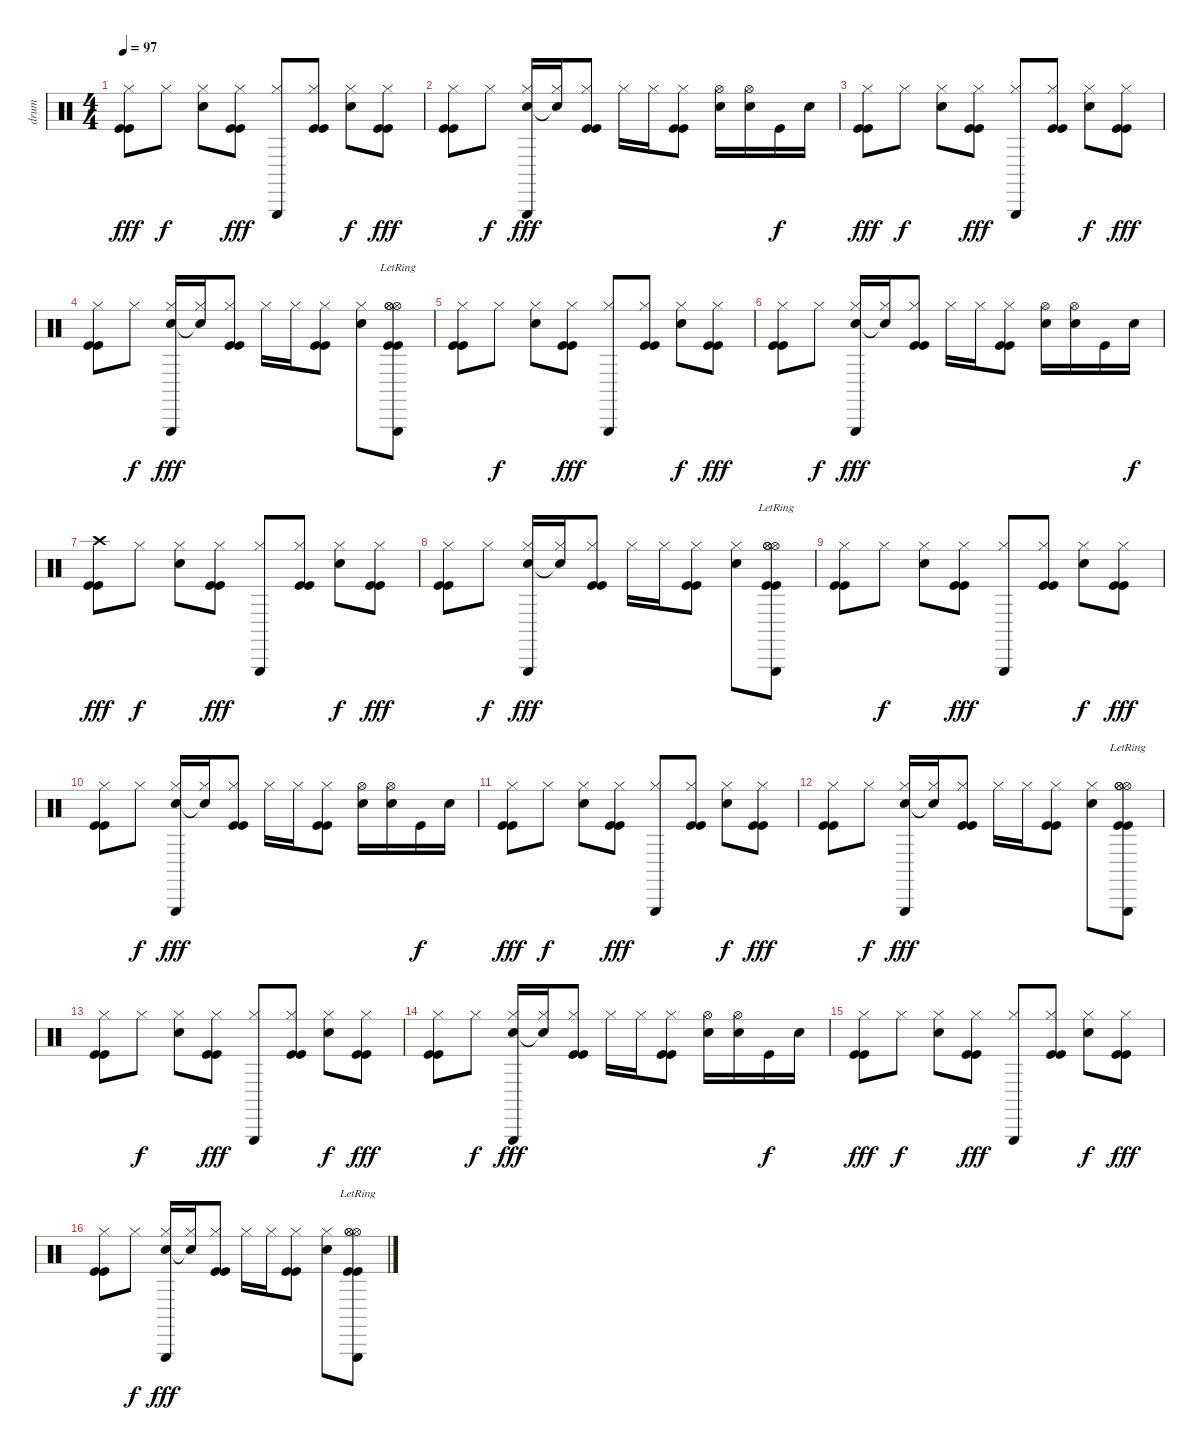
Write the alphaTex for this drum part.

\track ("drum" "drum") {instrument percussion}
\staff {score}
\articulation defaults
\ts (4 4)
\tempo 97
\clef neutral
\ks c
("Hi-Hat (closed)" "Kick (hit)" "Kick (hit)").8{dy fff} "Hi-Hat (closed)".8{dy f} ("Hi-Hat (closed)" "Electric Snare (hit)").8 ("Hi-Hat (closed)" "Kick (hit)" "Kick (hit)").8{dy fff} ("Hi-Hat (closed)" "Triangle (hit)").8 ("Hi-Hat (closed)" "Kick (hit)" "Kick (hit)").8 ("Hi-Hat (closed)" "Electric Snare (hit)").8{dy f} ("Hi-Hat (closed)" "Kick (hit)" "Kick (hit)").8{dy fff} |
("Hi-Hat (closed)" "Kick (hit)" "Kick (hit)").8 "Hi-Hat (closed)".8{dy f} ("Hi-Hat (closed)" "Electric Snare (hit)" "Triangle (hit)").16{dy fff} ("Hi-Hat (closed)" "Snare (hit)"{t}).16 ("Hi-Hat (closed)" "Kick (hit)" "Kick (hit)").8 "Hi-Hat (closed)".16 "Hi-Hat (closed)".16 ("Hi-Hat (closed)" "Kick (hit)" "Kick (hit)").8 ("Hi-Hat (open)" "Electric Snare (hit)").16 ("Hi-Hat (open)" "Electric Snare (hit)").16 "Kick (hit)".16{dy f} "Electric Snare (hit)".16 |
("Hi-Hat (closed)" "Kick (hit)" "Kick (hit)").8{dy fff} "Hi-Hat (closed)".8{dy f} ("Hi-Hat (closed)" "Electric Snare (hit)").8 ("Hi-Hat (closed)" "Kick (hit)" "Kick (hit)").8{dy fff} ("Hi-Hat (closed)" "Triangle (hit)").8 ("Hi-Hat (closed)" "Kick (hit)" "Kick (hit)").8 ("Hi-Hat (closed)" "Electric Snare (hit)").8{dy f} ("Hi-Hat (closed)" "Kick (hit)" "Kick (hit)").8{dy fff} |
("Hi-Hat (closed)" "Kick (hit)" "Kick (hit)").8 "Hi-Hat (closed)".8{dy f} ("Hi-Hat (closed)" "Electric Snare (hit)" "Triangle (hit)").16{dy fff} ("Hi-Hat (closed)" "Snare (hit)"{t}).16 ("Hi-Hat (closed)" "Kick (hit)" "Kick (hit)").8 "Hi-Hat (closed)".16 "Hi-Hat (closed)".16 ("Hi-Hat (closed)" "Kick (hit)" "Kick (hit)").8 ("Hi-Hat (closed)" "Electric Snare (hit)").8 ("Hi-Hat (open)" "Hi-Hat (open)" "Hi-Hat (open)" "Triangle (hit)"{lr} "Kick (hit)" "Kick (hit)").8 |
("Hi-Hat (closed)" "Kick (hit)" "Kick (hit)").8 "Hi-Hat (closed)".8{dy f} ("Hi-Hat (closed)" "Electric Snare (hit)").8 ("Hi-Hat (closed)" "Kick (hit)" "Kick (hit)").8{dy fff} ("Hi-Hat (closed)" "Triangle (hit)").8 ("Hi-Hat (closed)" "Kick (hit)" "Kick (hit)").8 ("Hi-Hat (closed)" "Electric Snare (hit)").8{dy f} ("Hi-Hat (closed)" "Kick (hit)" "Kick (hit)").8{dy fff} |
("Hi-Hat (closed)" "Kick (hit)" "Kick (hit)").8 "Hi-Hat (closed)".8{dy f} ("Hi-Hat (closed)" "Electric Snare (hit)" "Triangle (hit)").16{dy fff} ("Hi-Hat (closed)" "Snare (hit)"{t}).16 ("Hi-Hat (closed)" "Kick (hit)" "Kick (hit)").8 "Hi-Hat (closed)".16 "Hi-Hat (closed)".16 ("Hi-Hat (closed)" "Kick (hit)" "Kick (hit)").8 ("Hi-Hat (open)" "Electric Snare (hit)").16 ("Hi-Hat (open)" "Electric Snare (hit)").16 "Kick (hit)".16 "Electric Snare (hit)".16{dy f} |
("Crash high (hit)" "Kick (hit)" "Kick (hit)").8{dy fff} "Hi-Hat (closed)".8{dy f} ("Hi-Hat (closed)" "Electric Snare (hit)").8 ("Hi-Hat (closed)" "Kick (hit)" "Kick (hit)").8{dy fff} ("Hi-Hat (closed)" "Triangle (hit)").8 ("Hi-Hat (closed)" "Kick (hit)" "Kick (hit)").8 ("Hi-Hat (closed)" "Electric Snare (hit)").8{dy f} ("Hi-Hat (closed)" "Kick (hit)" "Kick (hit)").8{dy fff} |
("Hi-Hat (closed)" "Kick (hit)" "Kick (hit)").8 "Hi-Hat (closed)".8{dy f} ("Hi-Hat (closed)" "Electric Snare (hit)" "Triangle (hit)").16{dy fff} ("Hi-Hat (closed)" "Snare (hit)"{t}).16 ("Hi-Hat (closed)" "Kick (hit)" "Kick (hit)").8 "Hi-Hat (closed)".16 "Hi-Hat (closed)".16 ("Hi-Hat (closed)" "Kick (hit)" "Kick (hit)").8 ("Hi-Hat (closed)" "Electric Snare (hit)").8 ("Hi-Hat (open)" "Hi-Hat (open)" "Hi-Hat (open)" "Triangle (hit)"{lr} "Kick (hit)" "Kick (hit)").8 |
("Hi-Hat (closed)" "Kick (hit)" "Kick (hit)").8 "Hi-Hat (closed)".8{dy f} ("Hi-Hat (closed)" "Electric Snare (hit)").8 ("Hi-Hat (closed)" "Kick (hit)" "Kick (hit)").8{dy fff} ("Hi-Hat (closed)" "Triangle (hit)").8 ("Hi-Hat (closed)" "Kick (hit)" "Kick (hit)").8 ("Hi-Hat (closed)" "Electric Snare (hit)").8{dy f} ("Hi-Hat (closed)" "Kick (hit)" "Kick (hit)").8{dy fff} |
("Hi-Hat (closed)" "Kick (hit)" "Kick (hit)").8 "Hi-Hat (closed)".8{dy f} ("Hi-Hat (closed)" "Electric Snare (hit)" "Triangle (hit)").16{dy fff} ("Hi-Hat (closed)" "Snare (hit)"{t}).16 ("Hi-Hat (closed)" "Kick (hit)" "Kick (hit)").8 "Hi-Hat (closed)".16 "Hi-Hat (closed)".16 ("Hi-Hat (closed)" "Kick (hit)" "Kick (hit)").8 ("Hi-Hat (open)" "Electric Snare (hit)").16 ("Hi-Hat (open)" "Electric Snare (hit)").16 "Kick (hit)".16{dy f} "Electric Snare (hit)".16 |
("Hi-Hat (closed)" "Kick (hit)" "Kick (hit)").8{dy fff} "Hi-Hat (closed)".8{dy f} ("Hi-Hat (closed)" "Electric Snare (hit)").8 ("Hi-Hat (closed)" "Kick (hit)" "Kick (hit)").8{dy fff} ("Hi-Hat (closed)" "Triangle (hit)").8 ("Hi-Hat (closed)" "Kick (hit)" "Kick (hit)").8 ("Hi-Hat (closed)" "Electric Snare (hit)").8{dy f} ("Hi-Hat (closed)" "Kick (hit)" "Kick (hit)").8{dy fff} |
("Hi-Hat (closed)" "Kick (hit)" "Kick (hit)").8 "Hi-Hat (closed)".8{dy f} ("Hi-Hat (closed)" "Electric Snare (hit)" "Triangle (hit)").16{dy fff} ("Hi-Hat (closed)" "Snare (hit)"{t}).16 ("Hi-Hat (closed)" "Kick (hit)" "Kick (hit)").8 "Hi-Hat (closed)".16 "Hi-Hat (closed)".16 ("Hi-Hat (closed)" "Kick (hit)" "Kick (hit)").8 ("Hi-Hat (closed)" "Electric Snare (hit)").8 ("Hi-Hat (open)" "Hi-Hat (open)" "Hi-Hat (open)" "Triangle (hit)"{lr} "Kick (hit)" "Kick (hit)").8 |
("Hi-Hat (closed)" "Kick (hit)" "Kick (hit)").8 "Hi-Hat (closed)".8{dy f} ("Hi-Hat (closed)" "Electric Snare (hit)").8 ("Hi-Hat (closed)" "Kick (hit)" "Kick (hit)").8{dy fff} ("Hi-Hat (closed)" "Triangle (hit)").8 ("Hi-Hat (closed)" "Kick (hit)" "Kick (hit)").8 ("Hi-Hat (closed)" "Electric Snare (hit)").8{dy f} ("Hi-Hat (closed)" "Kick (hit)" "Kick (hit)").8{dy fff} |
("Hi-Hat (closed)" "Kick (hit)" "Kick (hit)").8 "Hi-Hat (closed)".8{dy f} ("Hi-Hat (closed)" "Electric Snare (hit)" "Triangle (hit)").16{dy fff} ("Hi-Hat (closed)" "Snare (hit)"{t}).16 ("Hi-Hat (closed)" "Kick (hit)" "Kick (hit)").8 "Hi-Hat (closed)".16 "Hi-Hat (closed)".16 ("Hi-Hat (closed)" "Kick (hit)" "Kick (hit)").8 ("Hi-Hat (open)" "Electric Snare (hit)").16 ("Hi-Hat (open)" "Electric Snare (hit)").16 "Kick (hit)".16{dy f} "Electric Snare (hit)".16 |
("Hi-Hat (closed)" "Kick (hit)" "Kick (hit)").8{dy fff} "Hi-Hat (closed)".8{dy f} ("Hi-Hat (closed)" "Electric Snare (hit)").8 ("Hi-Hat (closed)" "Kick (hit)" "Kick (hit)").8{dy fff} ("Hi-Hat (closed)" "Triangle (hit)").8 ("Hi-Hat (closed)" "Kick (hit)" "Kick (hit)").8 ("Hi-Hat (closed)" "Electric Snare (hit)").8{dy f} ("Hi-Hat (closed)" "Kick (hit)" "Kick (hit)").8{dy fff} |
("Hi-Hat (closed)" "Kick (hit)" "Kick (hit)").8 "Hi-Hat (closed)".8{dy f} ("Hi-Hat (closed)" "Electric Snare (hit)" "Triangle (hit)").16{dy fff} ("Hi-Hat (closed)" "Snare (hit)"{t}).16 ("Hi-Hat (closed)" "Kick (hit)" "Kick (hit)").8 "Hi-Hat (closed)".16 "Hi-Hat (closed)".16 ("Hi-Hat (closed)" "Kick (hit)" "Kick (hit)").8 ("Hi-Hat (closed)" "Electric Snare (hit)").8 ("Hi-Hat (open)" "Hi-Hat (open)" "Hi-Hat (open)" "Triangle (hit)"{lr} "Kick (hit)" "Kick (hit)").8
